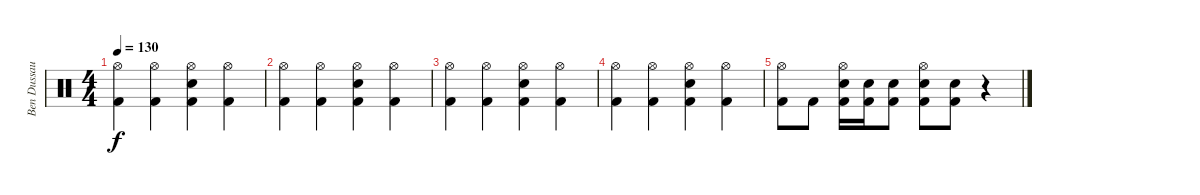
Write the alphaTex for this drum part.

\track ("Ben Dussault" "Ben Dussau") {instrument percussion}
\staff {score}
\articulation defaults
\ts (4 4)
\tempo 130
\clef neutral
\ks c
("Hi-Hat (open)" "Kick (hit) 2").4{dy f} ("Hi-Hat (open)" "Kick (hit) 2").4 ("Hi-Hat (open)" "Snare (hit) 2" "Kick (hit) 2").4 ("Hi-Hat (open)" "Kick (hit) 2").4 |
("Hi-Hat (open)" "Kick (hit) 2").4 ("Hi-Hat (open)" "Kick (hit) 2").4 ("Hi-Hat (open)" "Snare (hit) 2" "Kick (hit) 2").4 ("Hi-Hat (open)" "Kick (hit) 2").4 |
("Hi-Hat (open)" "Kick (hit) 2").4 ("Hi-Hat (open)" "Kick (hit) 2").4 ("Hi-Hat (open)" "Snare (hit) 2" "Kick (hit) 2").4 ("Hi-Hat (open)" "Kick (hit) 2").4 |
("Hi-Hat (open)" "Kick (hit) 2").4 ("Hi-Hat (open)" "Kick (hit) 2").4 ("Hi-Hat (open)" "Snare (hit) 2" "Kick (hit) 2").4 ("Hi-Hat (open)" "Kick (hit) 2").4 |
("Hi-Hat (open)" "Kick (hit) 2").8 "Kick (hit) 2".8 ("Hi-Hat (open)" "Snare (hit) 2" "Kick (hit) 2").16 ("Snare (hit) 2" "Kick (hit) 2").16 ("Snare (hit) 2" "Kick (hit) 2").8 ("Hi-Hat (open)" "Snare (hit) 2" "Kick (hit) 2").8 ("Snare (hit) 2" "Kick (hit) 2").8 r.4
